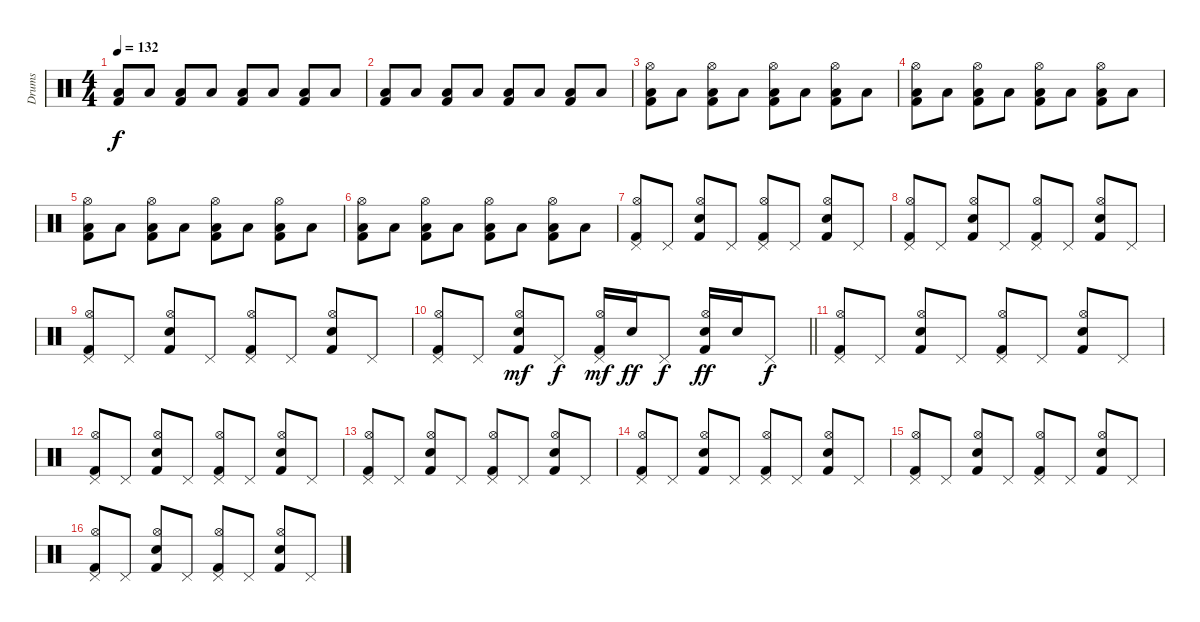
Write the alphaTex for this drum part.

\track ("Drums" "Drums") {instrument percussion}
\staff {score}
\articulation defaults
\ts (4 4)
\tempo 132
\clef neutral
\ks c
("Low Floor Tom (hit)" "Kick (hit) 2").8{dy f} "Low Floor Tom (hit)".8 ("Low Floor Tom (hit)" "Kick (hit) 2").8 "Low Floor Tom (hit)".8 ("Low Floor Tom (hit)" "Kick (hit) 2").8 "Low Floor Tom (hit)".8 ("Low Floor Tom (hit)" "Kick (hit) 2").8 "Low Floor Tom (hit)".8 |
("Low Floor Tom (hit)" "Kick (hit) 2").8 "Low Floor Tom (hit)".8 ("Low Floor Tom (hit)" "Kick (hit) 2").8 "Low Floor Tom (hit)".8 ("Low Floor Tom (hit)" "Kick (hit) 2").8 "Low Floor Tom (hit)".8 ("Low Floor Tom (hit)" "Kick (hit) 2").8 "Low Floor Tom (hit)".8 |
("Hi-Hat (open)" "Low Floor Tom (hit)" "Kick (hit) 2").8 "Low Floor Tom (hit)".8 ("Hi-Hat (open)" "Low Floor Tom (hit)" "Kick (hit) 2").8 "Low Floor Tom (hit)".8 ("Hi-Hat (open)" "Low Floor Tom (hit)" "Kick (hit) 2").8 "Low Floor Tom (hit)".8 ("Hi-Hat (open)" "Low Floor Tom (hit)" "Kick (hit) 2").8 "Low Floor Tom (hit)".8 |
("Hi-Hat (open)" "Low Floor Tom (hit)" "Kick (hit) 2").8 "Low Floor Tom (hit)".8 ("Hi-Hat (open)" "Low Floor Tom (hit)" "Kick (hit) 2").8 "Low Floor Tom (hit)".8 ("Hi-Hat (open)" "Low Floor Tom (hit)" "Kick (hit) 2").8 "Low Floor Tom (hit)".8 ("Hi-Hat (open)" "Low Floor Tom (hit)" "Kick (hit) 2").8 "Low Floor Tom (hit)".8 |
("Hi-Hat (open)" "Low Floor Tom (hit)" "Kick (hit) 2").8 "Low Floor Tom (hit)".8 ("Hi-Hat (open)" "Low Floor Tom (hit)" "Kick (hit) 2").8 "Low Floor Tom (hit)".8 ("Hi-Hat (open)" "Low Floor Tom (hit)" "Kick (hit) 2").8 "Low Floor Tom (hit)".8 ("Hi-Hat (open)" "Low Floor Tom (hit)" "Kick (hit) 2").8 "Low Floor Tom (hit)".8 |
("Hi-Hat (open)" "Low Floor Tom (hit)" "Kick (hit) 2").8 "Low Floor Tom (hit)".8 ("Hi-Hat (open)" "Low Floor Tom (hit)" "Kick (hit) 2").8 "Low Floor Tom (hit)".8 ("Hi-Hat (open)" "Low Floor Tom (hit)" "Kick (hit) 2").8 "Low Floor Tom (hit)".8 ("Hi-Hat (open)" "Low Floor Tom (hit)" "Kick (hit) 2").8 "Low Floor Tom (hit)".8 |
("Hi-Hat (open)" "Pedal Hi-Hat (hit)" "Kick (hit) 2").8 "Pedal Hi-Hat (hit)".8 ("Electric Snare (hit)" "Hi-Hat (open)" "Kick (hit) 2").8 "Pedal Hi-Hat (hit)".8 ("Hi-Hat (open)" "Pedal Hi-Hat (hit)" "Kick (hit) 2").8 "Pedal Hi-Hat (hit)".8 ("Electric Snare (hit)" "Hi-Hat (open)" "Kick (hit) 2").8 "Pedal Hi-Hat (hit)".8 |
("Hi-Hat (open)" "Pedal Hi-Hat (hit)" "Kick (hit) 2").8 "Pedal Hi-Hat (hit)".8 ("Electric Snare (hit)" "Hi-Hat (open)" "Kick (hit) 2").8 "Pedal Hi-Hat (hit)".8 ("Hi-Hat (open)" "Pedal Hi-Hat (hit)" "Kick (hit) 2").8 "Pedal Hi-Hat (hit)".8 ("Electric Snare (hit)" "Hi-Hat (open)" "Kick (hit) 2").8 "Pedal Hi-Hat (hit)".8 |
("Hi-Hat (open)" "Pedal Hi-Hat (hit)" "Kick (hit) 2").8 "Pedal Hi-Hat (hit)".8 ("Electric Snare (hit)" "Hi-Hat (open)" "Kick (hit) 2").8 "Pedal Hi-Hat (hit)".8 ("Hi-Hat (open)" "Pedal Hi-Hat (hit)" "Kick (hit) 2").8 "Pedal Hi-Hat (hit)".8 ("Electric Snare (hit)" "Hi-Hat (open)" "Kick (hit) 2").8 "Pedal Hi-Hat (hit)".8 |
\barLineRight lightlight
("Hi-Hat (open)" "Pedal Hi-Hat (hit)" "Kick (hit) 2").8 "Pedal Hi-Hat (hit)".8 ("Electric Snare (hit)" "Hi-Hat (open)" "Kick (hit) 2").8{dy mf} "Pedal Hi-Hat (hit)".8{dy f} ("Hi-Hat (open)" "Pedal Hi-Hat (hit)" "Kick (hit) 2").16{dy mf} "Electric Snare (hit)".16{dy ff} "Pedal Hi-Hat (hit)".8{dy f} ("Electric Snare (hit)" "Hi-Hat (open)" "Kick (hit) 2").16{dy ff} "Electric Snare (hit)".16 "Pedal Hi-Hat (hit)".8{dy f} |
\section ("" "")
("Hi-Hat (open)" "Pedal Hi-Hat (hit)" "Kick (hit) 2").8 "Pedal Hi-Hat (hit)".8 ("Electric Snare (hit)" "Hi-Hat (open)" "Kick (hit) 2").8 "Pedal Hi-Hat (hit)".8 ("Hi-Hat (open)" "Pedal Hi-Hat (hit)" "Kick (hit) 2").8 "Pedal Hi-Hat (hit)".8 ("Electric Snare (hit)" "Hi-Hat (open)" "Kick (hit) 2").8 "Pedal Hi-Hat (hit)".8 |
("Hi-Hat (open)" "Pedal Hi-Hat (hit)" "Kick (hit) 2").8 "Pedal Hi-Hat (hit)".8 ("Electric Snare (hit)" "Hi-Hat (open)" "Kick (hit) 2").8 "Pedal Hi-Hat (hit)".8 ("Hi-Hat (open)" "Pedal Hi-Hat (hit)" "Kick (hit) 2").8 "Pedal Hi-Hat (hit)".8 ("Electric Snare (hit)" "Hi-Hat (open)" "Kick (hit) 2").8 "Pedal Hi-Hat (hit)".8 |
("Hi-Hat (open)" "Pedal Hi-Hat (hit)" "Kick (hit) 2").8 "Pedal Hi-Hat (hit)".8 ("Electric Snare (hit)" "Hi-Hat (open)" "Kick (hit) 2").8 "Pedal Hi-Hat (hit)".8 ("Hi-Hat (open)" "Pedal Hi-Hat (hit)" "Kick (hit) 2").8 "Pedal Hi-Hat (hit)".8 ("Electric Snare (hit)" "Hi-Hat (open)" "Kick (hit) 2").8 "Pedal Hi-Hat (hit)".8 |
("Hi-Hat (open)" "Pedal Hi-Hat (hit)" "Kick (hit) 2").8 "Pedal Hi-Hat (hit)".8 ("Electric Snare (hit)" "Hi-Hat (open)" "Kick (hit) 2").8 "Pedal Hi-Hat (hit)".8 ("Hi-Hat (open)" "Pedal Hi-Hat (hit)" "Kick (hit) 2").8 "Pedal Hi-Hat (hit)".8 ("Electric Snare (hit)" "Hi-Hat (open)" "Kick (hit) 2").8 "Pedal Hi-Hat (hit)".8 |
("Hi-Hat (open)" "Pedal Hi-Hat (hit)" "Kick (hit) 2").8 "Pedal Hi-Hat (hit)".8 ("Electric Snare (hit)" "Hi-Hat (open)" "Kick (hit) 2").8 "Pedal Hi-Hat (hit)".8 ("Hi-Hat (open)" "Pedal Hi-Hat (hit)" "Kick (hit) 2").8 "Pedal Hi-Hat (hit)".8 ("Electric Snare (hit)" "Hi-Hat (open)" "Kick (hit) 2").8 "Pedal Hi-Hat (hit)".8 |
("Hi-Hat (open)" "Pedal Hi-Hat (hit)" "Kick (hit) 2").8 "Pedal Hi-Hat (hit)".8 ("Electric Snare (hit)" "Hi-Hat (open)" "Kick (hit) 2").8 "Pedal Hi-Hat (hit)".8 ("Hi-Hat (open)" "Pedal Hi-Hat (hit)" "Kick (hit) 2").8 "Pedal Hi-Hat (hit)".8 ("Electric Snare (hit)" "Hi-Hat (open)" "Kick (hit) 2").8 "Pedal Hi-Hat (hit)".8
